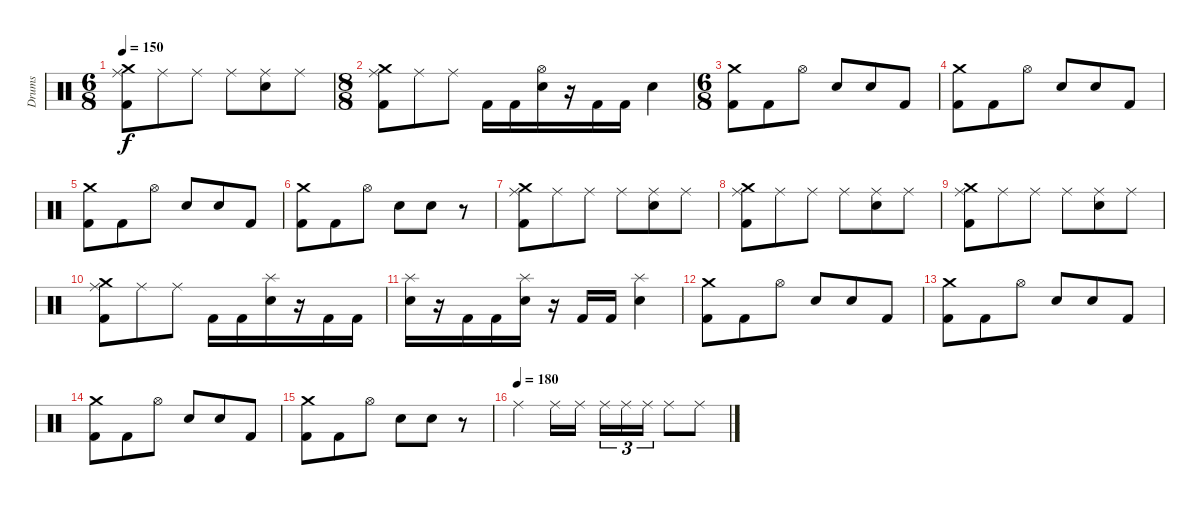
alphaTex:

\track ("Drums" "Drums") {instrument percussion}
\staff {score}
\articulation defaults
\ts (6 8)
\tempo 150
\clef neutral
\ks c
("Crash medium (hit)" "Ride (middle)" "Kick (hit) 2").8{dy f} "Ride (middle)".8 "Ride (middle)".8 "Ride (middle)".8 ("Ride (middle)" "Electric Snare (hit)").8 "Ride (middle)".8 |
\ts (8 8)
("Crash medium (hit)" "Ride (middle)" "Kick (hit) 2").8 "Ride (middle)".8 "Ride (middle)".8 "Kick (hit) 2".16 "Kick (hit) 2".16 ("Hi-Hat (open)" "Electric Snare (hit)").16 r.16 "Kick (hit) 2".16 "Kick (hit) 2".16 "Electric Snare (hit)".4 |
\ts (6 8)
("Crash medium (hit)" "Kick (hit) 2").8 "Kick (hit) 2".8 "Hi-Hat (open)".8 "Electric Snare (hit)".8 "Electric Snare (hit)".8 "Kick (hit) 2".8 |
("Crash medium (hit)" "Kick (hit) 2").8 "Kick (hit) 2".8 "Hi-Hat (open)".8 "Electric Snare (hit)".8 "Electric Snare (hit)".8 "Kick (hit) 2".8 |
("Crash medium (hit)" "Kick (hit) 2").8 "Kick (hit) 2".8 "Hi-Hat (open)".8 "Electric Snare (hit)".8 "Electric Snare (hit)".8 "Kick (hit) 2".8 |
("Crash medium (hit)" "Kick (hit) 2").8 "Kick (hit) 2".8 "Hi-Hat (open)".8 "Electric Snare (hit)".8 "Electric Snare (hit)".8 r.8 |
("Crash medium (hit)" "Ride (middle)" "Kick (hit) 2").8 "Ride (middle)".8 "Ride (middle)".8 "Ride (middle)".8 ("Ride (middle)" "Electric Snare (hit)").8 "Ride (middle)".8 |
("Crash medium (hit)" "Ride (middle)" "Kick (hit) 2").8 "Ride (middle)".8 "Ride (middle)".8 "Ride (middle)".8 ("Ride (middle)" "Electric Snare (hit)").8 "Ride (middle)".8 |
("Crash medium (hit)" "Ride (middle)" "Kick (hit) 2").8 "Ride (middle)".8 "Ride (middle)".8 "Ride (middle)".8 ("Ride (middle)" "Electric Snare (hit)").8 "Ride (middle)".8 |
("Crash medium (hit)" "Ride (middle)" "Kick (hit) 2").8 "Ride (middle)".8 "Ride (middle)".8 "Kick (hit) 2".16 "Kick (hit) 2".16 ("Splash (hit)" "Electric Snare (hit)").16 r.16 "Kick (hit) 2".16 "Kick (hit) 2".16 |
("Splash (hit)" "Electric Snare (hit)").16 r.16 "Kick (hit) 2".16 "Kick (hit) 2".16 ("Splash (hit)" "Electric Snare (hit)").16 r.16 "Kick (hit) 2".16 "Kick (hit) 2".16 ("Splash (hit)" "Electric Snare (hit)").4 |
("Crash medium (hit)" "Kick (hit) 2").8 "Kick (hit) 2".8 "Hi-Hat (open)".8 "Electric Snare (hit)".8 "Electric Snare (hit)".8 "Kick (hit) 2".8 |
("Crash medium (hit)" "Kick (hit) 2").8 "Kick (hit) 2".8 "Hi-Hat (open)".8 "Electric Snare (hit)".8 "Electric Snare (hit)".8 "Kick (hit) 2".8 |
("Crash medium (hit)" "Kick (hit) 2").8 "Kick (hit) 2".8 "Hi-Hat (open)".8 "Electric Snare (hit)".8 "Electric Snare (hit)".8 "Kick (hit) 2".8 |
("Crash medium (hit)" "Kick (hit) 2").8 "Kick (hit) 2".8 "Hi-Hat (open)".8 "Electric Snare (hit)".8 "Electric Snare (hit)".8 r.8 |
\tempo (180)
"Ride (middle)".4 "Ride (middle)".16 "Ride (middle)".16 "Ride (middle)".16{tu (3 2)} "Ride (middle)".16{tu (3 2)} "Ride (middle)".16{tu (3 2)} "Ride (middle)".8 "Ride (middle)".8
